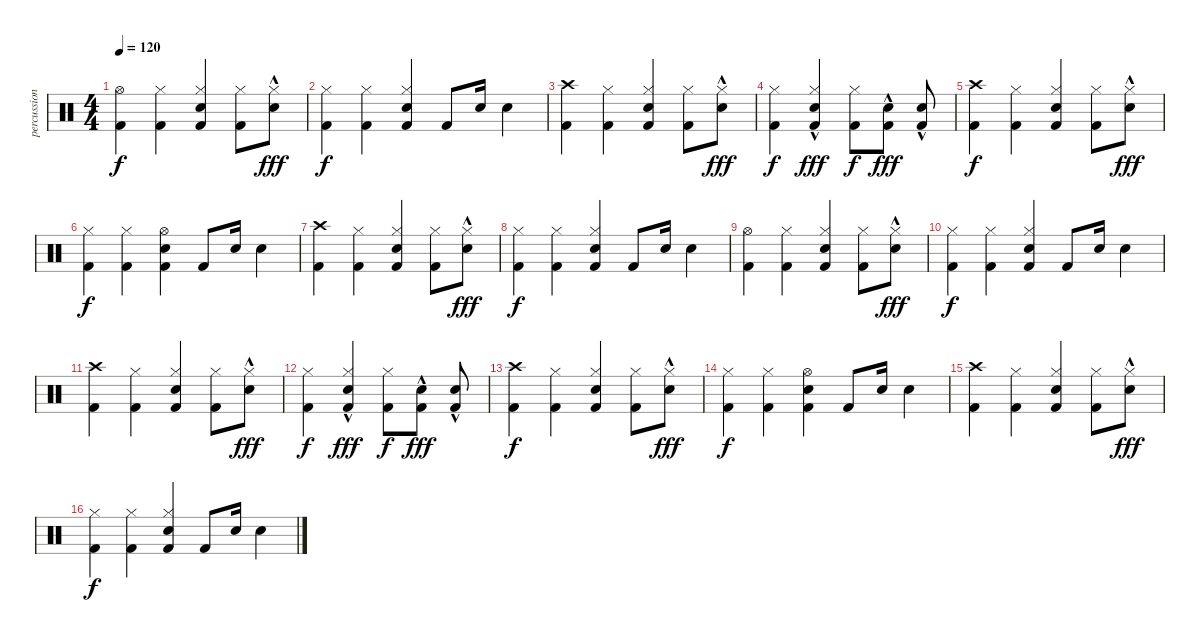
\track ("percussion" "percussion") {instrument percussion}
\staff {score}
\articulation defaults
\ts (4 4)
\tempo 120
\clef neutral
\ks c
("Hi-Hat (open)" "Kick (hit) 2").4{dy f} ("Hi-Hat (closed)" "Kick (hit) 2").4 ("Hi-Hat (closed)" "Electric Snare (hit)" "Kick (hit) 2").4 ("Hi-Hat (closed)" "Kick (hit) 2").8 ("Hi-Hat (closed)" "Electric Snare (hit)"{hac}).8{dy fff} |
("Hi-Hat (closed)" "Kick (hit) 2").4{dy f} ("Hi-Hat (closed)" "Kick (hit) 2").4 ("Hi-Hat (closed)" "Electric Snare (hit)" "Kick (hit) 2").4 "Kick (hit) 2".8 "Electric Snare (hit)".16 "Electric Snare (hit)".4 |
("Crash high (hit)" "Kick (hit) 2").4 ("Hi-Hat (closed)" "Kick (hit) 2").4 ("Hi-Hat (closed)" "Electric Snare (hit)" "Kick (hit) 2").4 ("Hi-Hat (closed)" "Kick (hit) 2").8 ("Hi-Hat (closed)" "Electric Snare (hit)"{hac}).8{dy fff} |
("Hi-Hat (closed)" "Kick (hit) 2").4{dy f} ("Hi-Hat (closed)" "Electric Snare (hit)"{hac} "Kick (hit) 2").4{dy fff} ("Hi-Hat (closed)" "Kick (hit) 2").8{dy f} ("Electric Snare (hit)"{hac} "Kick (hit) 2").8{dy fff} ("Electric Snare (hit)"{hac} "Kick (hit) 2").8 |
("Crash high (hit)" "Kick (hit) 2").4{dy f} ("Hi-Hat (closed)" "Kick (hit) 2").4 ("Hi-Hat (closed)" "Electric Snare (hit)" "Kick (hit) 2").4 ("Hi-Hat (closed)" "Kick (hit) 2").8 ("Hi-Hat (closed)" "Electric Snare (hit)"{hac}).8{dy fff} |
("Hi-Hat (closed)" "Kick (hit) 2").4{dy f} ("Hi-Hat (closed)" "Kick (hit) 2").4 ("Hi-Hat (open)" "Electric Snare (hit)" "Kick (hit) 2").4 "Kick (hit) 2".8 "Electric Snare (hit)".16 "Electric Snare (hit)".4 |
("Crash high (hit)" "Kick (hit) 2").4 ("Hi-Hat (closed)" "Kick (hit) 2").4 ("Hi-Hat (closed)" "Electric Snare (hit)" "Kick (hit) 2").4 ("Hi-Hat (closed)" "Kick (hit) 2").8 ("Hi-Hat (closed)" "Electric Snare (hit)"{hac}).8{dy fff} |
("Hi-Hat (closed)" "Kick (hit) 2").4{dy f} ("Hi-Hat (closed)" "Kick (hit) 2").4 ("Hi-Hat (closed)" "Electric Snare (hit)" "Kick (hit) 2").4 "Kick (hit) 2".8 "Electric Snare (hit)".16 "Electric Snare (hit)".4 |
("Hi-Hat (open)" "Kick (hit) 2").4 ("Hi-Hat (closed)" "Kick (hit) 2").4 ("Hi-Hat (closed)" "Electric Snare (hit)" "Kick (hit) 2").4 ("Hi-Hat (closed)" "Kick (hit) 2").8 ("Hi-Hat (closed)" "Electric Snare (hit)"{hac}).8{dy fff} |
("Hi-Hat (closed)" "Kick (hit) 2").4{dy f} ("Hi-Hat (closed)" "Kick (hit) 2").4 ("Hi-Hat (closed)" "Electric Snare (hit)" "Kick (hit) 2").4 "Kick (hit) 2".8 "Electric Snare (hit)".16 "Electric Snare (hit)".4 |
("Crash high (hit)" "Kick (hit) 2").4 ("Hi-Hat (closed)" "Kick (hit) 2").4 ("Hi-Hat (closed)" "Electric Snare (hit)" "Kick (hit) 2").4 ("Hi-Hat (closed)" "Kick (hit) 2").8 ("Hi-Hat (closed)" "Electric Snare (hit)"{hac}).8{dy fff} |
("Hi-Hat (closed)" "Kick (hit) 2").4{dy f} ("Hi-Hat (closed)" "Electric Snare (hit)"{hac} "Kick (hit) 2").4{dy fff} ("Hi-Hat (closed)" "Kick (hit) 2").8{dy f} ("Electric Snare (hit)"{hac} "Kick (hit) 2").8{dy fff} ("Electric Snare (hit)"{hac} "Kick (hit) 2").8 |
("Crash high (hit)" "Kick (hit) 2").4{dy f} ("Hi-Hat (closed)" "Kick (hit) 2").4 ("Hi-Hat (closed)" "Electric Snare (hit)" "Kick (hit) 2").4 ("Hi-Hat (closed)" "Kick (hit) 2").8 ("Hi-Hat (closed)" "Electric Snare (hit)"{hac}).8{dy fff} |
("Hi-Hat (closed)" "Kick (hit) 2").4{dy f} ("Hi-Hat (closed)" "Kick (hit) 2").4 ("Hi-Hat (open)" "Electric Snare (hit)" "Kick (hit) 2").4 "Kick (hit) 2".8 "Electric Snare (hit)".16 "Electric Snare (hit)".4 |
("Crash high (hit)" "Kick (hit) 2").4 ("Hi-Hat (closed)" "Kick (hit) 2").4 ("Hi-Hat (closed)" "Electric Snare (hit)" "Kick (hit) 2").4 ("Hi-Hat (closed)" "Kick (hit) 2").8 ("Hi-Hat (closed)" "Electric Snare (hit)"{hac}).8{dy fff} |
("Hi-Hat (closed)" "Kick (hit) 2").4{dy f} ("Hi-Hat (closed)" "Kick (hit) 2").4 ("Hi-Hat (closed)" "Electric Snare (hit)" "Kick (hit) 2").4 "Kick (hit) 2".8 "Electric Snare (hit)".16 "Electric Snare (hit)".4
